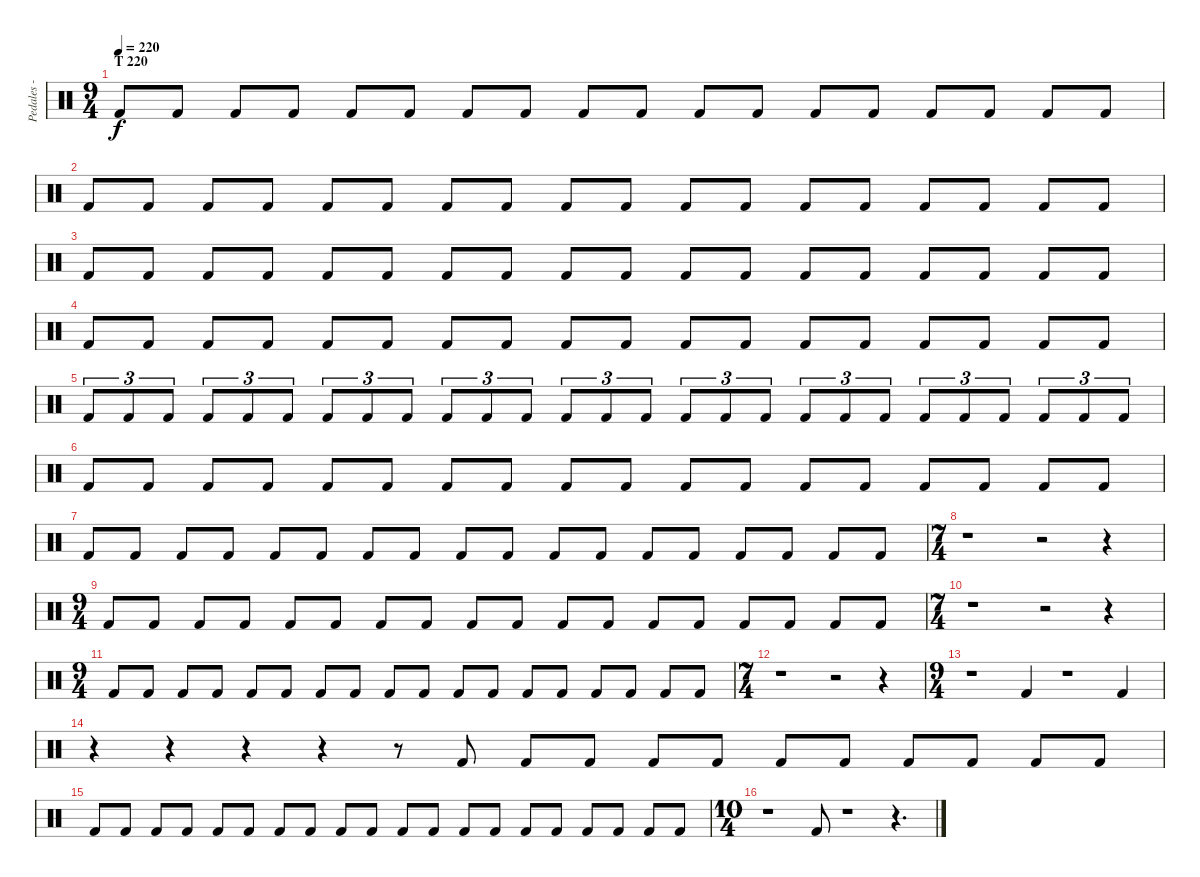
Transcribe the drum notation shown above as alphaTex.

\track ("Pedales - Compa" "Pedales - ") {instrument percussion}
\staff {score}
\articulation defaults
\ts (9 4)
\section ("" "T 220")
\tempo 220
\clef neutral
\ks c "Kick (hit) 2".8{dy f} "Kick (hit) 2".8 "Kick (hit) 2".8 "Kick (hit) 2".8 "Kick (hit) 2".8 "Kick (hit) 2".8 "Kick (hit) 2".8 "Kick (hit) 2".8 "Kick (hit) 2".8 "Kick (hit) 2".8 "Kick (hit) 2".8 "Kick (hit) 2".8 "Kick (hit) 2".8 "Kick (hit) 2".8 "Kick (hit) 2".8 "Kick (hit) 2".8 "Kick (hit) 2".8 "Kick (hit) 2".8
|
"Kick (hit) 2".8 "Kick (hit) 2".8 "Kick (hit) 2".8 "Kick (hit) 2".8 "Kick (hit) 2".8 "Kick (hit) 2".8 "Kick (hit) 2".8 "Kick (hit) 2".8 "Kick (hit) 2".8 "Kick (hit) 2".8 "Kick (hit) 2".8 "Kick (hit) 2".8 "Kick (hit) 2".8 "Kick (hit) 2".8 "Kick (hit) 2".8 "Kick (hit) 2".8 "Kick (hit) 2".8 "Kick (hit) 2".8 |
"Kick (hit) 2".8 "Kick (hit) 2".8 "Kick (hit) 2".8 "Kick (hit) 2".8 "Kick (hit) 2".8 "Kick (hit) 2".8 "Kick (hit) 2".8 "Kick (hit) 2".8 "Kick (hit) 2".8 "Kick (hit) 2".8 "Kick (hit) 2".8 "Kick (hit) 2".8 "Kick (hit) 2".8 "Kick (hit) 2".8 "Kick (hit) 2".8 "Kick (hit) 2".8 "Kick (hit) 2".8 "Kick (hit) 2".8 |
"Kick (hit) 2".8 "Kick (hit) 2".8 "Kick (hit) 2".8 "Kick (hit) 2".8 "Kick (hit) 2".8 "Kick (hit) 2".8 "Kick (hit) 2".8 "Kick (hit) 2".8 "Kick (hit) 2".8 "Kick (hit) 2".8 "Kick (hit) 2".8 "Kick (hit) 2".8 "Kick (hit) 2".8 "Kick (hit) 2".8 "Kick (hit) 2".8 "Kick (hit) 2".8 "Kick (hit) 2".8 "Kick (hit) 2".8 |
"Kick (hit) 2".8{tu (3 2)} "Kick (hit) 2".8{tu (3 2)} "Kick (hit) 2".8{tu (3 2)} "Kick (hit) 2".8{tu (3 2)} "Kick (hit) 2".8{tu (3 2)} "Kick (hit) 2".8{tu (3 2)} "Kick (hit) 2".8{tu (3 2)} "Kick (hit) 2".8{tu (3 2)} "Kick (hit) 2".8{tu (3 2)} "Kick (hit) 2".8{tu (3 2)} "Kick (hit) 2".8{tu (3 2)} "Kick (hit) 2".8{tu (3 2)} "Kick (hit) 2".8{tu (3 2)} "Kick (hit) 2".8{tu (3 2)} "Kick (hit) 2".8{tu (3 2)} "Kick (hit) 2".8{tu (3 2)} "Kick (hit) 2".8{tu (3 2)} "Kick (hit) 2".8{tu (3 2)} "Kick (hit) 2".8{tu (3 2)} "Kick (hit) 2".8{tu (3 2)} "Kick (hit) 2".8{tu (3 2)} "Kick (hit) 2".8{tu (3 2)} "Kick (hit) 2".8{tu (3 2)} "Kick (hit) 2".8{tu (3 2)} "Kick (hit) 2".8{tu (3 2)} "Kick (hit) 2".8{tu (3 2)} "Kick (hit) 2".8{tu (3 2)} |
"Kick (hit) 2".8 "Kick (hit) 2".8 "Kick (hit) 2".8 "Kick (hit) 2".8 "Kick (hit) 2".8 "Kick (hit) 2".8 "Kick (hit) 2".8 "Kick (hit) 2".8 "Kick (hit) 2".8 "Kick (hit) 2".8 "Kick (hit) 2".8 "Kick (hit) 2".8 "Kick (hit) 2".8 "Kick (hit) 2".8 "Kick (hit) 2".8 "Kick (hit) 2".8 "Kick (hit) 2".8 "Kick (hit) 2".8 |
"Kick (hit) 2".8 "Kick (hit) 2".8 "Kick (hit) 2".8 "Kick (hit) 2".8 "Kick (hit) 2".8 "Kick (hit) 2".8 "Kick (hit) 2".8 "Kick (hit) 2".8 "Kick (hit) 2".8 "Kick (hit) 2".8 "Kick (hit) 2".8 "Kick (hit) 2".8 "Kick (hit) 2".8 "Kick (hit) 2".8 "Kick (hit) 2".8 "Kick (hit) 2".8 "Kick (hit) 2".8 "Kick (hit) 2".8 |
\ts (7 4)
r.1 r.2 r.4 |
\ts (9 4)
"Kick (hit) 2".8 "Kick (hit) 2".8 "Kick (hit) 2".8 "Kick (hit) 2".8 "Kick (hit) 2".8 "Kick (hit) 2".8 "Kick (hit) 2".8 "Kick (hit) 2".8 "Kick (hit) 2".8 "Kick (hit) 2".8 "Kick (hit) 2".8 "Kick (hit) 2".8 "Kick (hit) 2".8 "Kick (hit) 2".8 "Kick (hit) 2".8 "Kick (hit) 2".8 "Kick (hit) 2".8 "Kick (hit) 2".8 |
\ts (7 4)
r.1 r.2 r.4 |
\ts (9 4)
"Kick (hit) 2".8 "Kick (hit) 2".8 "Kick (hit) 2".8 "Kick (hit) 2".8 "Kick (hit) 2".8 "Kick (hit) 2".8 "Kick (hit) 2".8 "Kick (hit) 2".8 "Kick (hit) 2".8 "Kick (hit) 2".8 "Kick (hit) 2".8 "Kick (hit) 2".8 "Kick (hit) 2".8 "Kick (hit) 2".8 "Kick (hit) 2".8 "Kick (hit) 2".8 "Kick (hit) 2".8 "Kick (hit) 2".8 |
\ts (7 4)
r.1 r.2 r.4 |
\ts (9 4)
r.1 "Kick (hit) 2".4 r.1 "Kick (hit) 2".4 |
r.4 r.4 r.4 r.4 r.8 "Kick (hit) 2".8 "Kick (hit) 2".8 "Kick (hit) 2".8 "Kick (hit) 2".8 "Kick (hit) 2".8 "Kick (hit) 2".8 "Kick (hit) 2".8 "Kick (hit) 2".8 "Kick (hit) 2".8 "Kick (hit) 2".8 "Kick (hit) 2".8 |
"Kick (hit) 2".8 "Kick (hit) 2".8 "Kick (hit) 2".8 "Kick (hit) 2".8 "Kick (hit) 2".8 "Kick (hit) 2".8 "Kick (hit) 2".8 "Kick (hit) 2".8 "Kick (hit) 2".8 "Kick (hit) 2".8 "Kick (hit) 2".8 "Kick (hit) 2".8 "Kick (hit) 2".8 "Kick (hit) 2".8 "Kick (hit) 2".8 "Kick (hit) 2".8 "Kick (hit) 2".8 "Kick (hit) 2".8 "Kick (hit) 2".8 "Kick (hit) 2".8 |
\ts (10 4)
r.1 "Kick (hit) 2".8 r.1 r.4{d}
